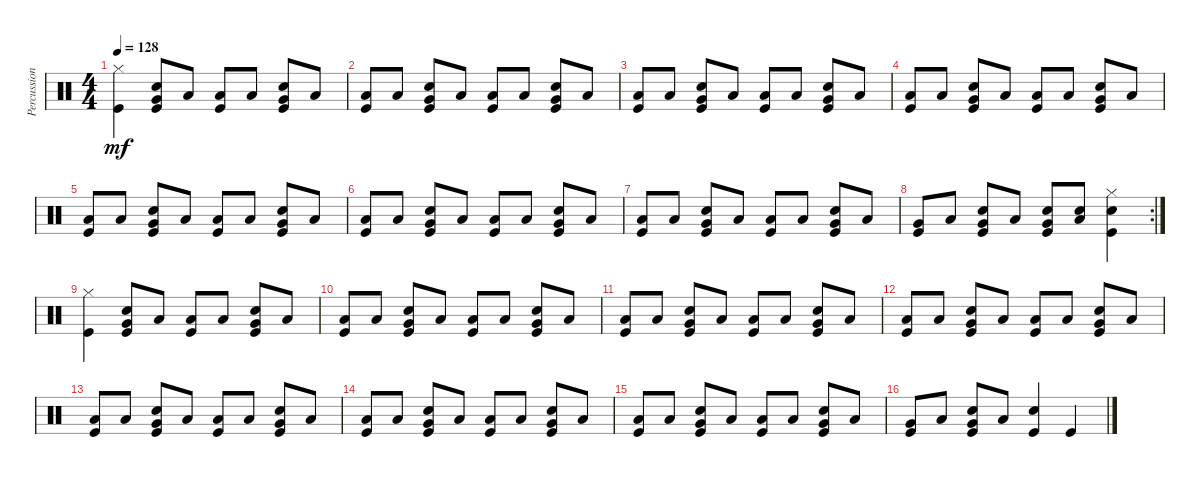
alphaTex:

\track ("Percussions" "Percussion") {instrument percussion}
\staff {score}
\articulation defaults
\ts (4 4)
\tempo 128
\clef neutral
\ks c
("Hi-Hat (closed)" "Kick (hit)").4{dy mf} ("Very Low Tom (hit)" "Snare (hit) 2" "Kick (hit)").8 "Low Floor Tom (hit)".8 ("Low Floor Tom (hit)" "Kick (hit)").8 "Low Floor Tom (hit)".8 ("Very Low Tom (hit)" "Snare (hit) 2" "Kick (hit)").8 "Low Floor Tom (hit)".8 |
("Low Floor Tom (hit)" "Kick (hit)").8 "Low Floor Tom (hit)".8 ("Very Low Tom (hit)" "Snare (hit) 2" "Kick (hit)").8 "Low Floor Tom (hit)".8 ("Low Floor Tom (hit)" "Kick (hit)").8 "Low Floor Tom (hit)".8 ("Very Low Tom (hit)" "Snare (hit) 2" "Kick (hit)").8 "Low Floor Tom (hit)".8 |
("Low Floor Tom (hit)" "Kick (hit)").8 "Low Floor Tom (hit)".8 ("Very Low Tom (hit)" "Snare (hit) 2" "Kick (hit)").8 "Low Floor Tom (hit)".8 ("Low Floor Tom (hit)" "Kick (hit)").8 "Low Floor Tom (hit)".8 ("Very Low Tom (hit)" "Snare (hit) 2" "Kick (hit)").8 "Low Floor Tom (hit)".8 |
("Low Floor Tom (hit)" "Kick (hit)").8 "Low Floor Tom (hit)".8 ("Very Low Tom (hit)" "Snare (hit) 2" "Kick (hit)").8 "Low Floor Tom (hit)".8 ("Low Floor Tom (hit)" "Kick (hit)").8 "Low Floor Tom (hit)".8 ("Very Low Tom (hit)" "Snare (hit) 2" "Kick (hit)").8 "Low Floor Tom (hit)".8 |
("Low Floor Tom (hit)" "Kick (hit)").8 "Low Floor Tom (hit)".8 ("Very Low Tom (hit)" "Snare (hit) 2" "Kick (hit)").8 "Low Floor Tom (hit)".8 ("Low Floor Tom (hit)" "Kick (hit)").8 "Low Floor Tom (hit)".8 ("Very Low Tom (hit)" "Snare (hit) 2" "Kick (hit)").8 "Low Floor Tom (hit)".8 |
("Low Floor Tom (hit)" "Kick (hit)").8 "Low Floor Tom (hit)".8 ("Very Low Tom (hit)" "Snare (hit) 2" "Kick (hit)").8 "Low Floor Tom (hit)".8 ("Low Floor Tom (hit)" "Kick (hit)").8 "Low Floor Tom (hit)".8 ("Very Low Tom (hit)" "Snare (hit) 2" "Kick (hit)").8 "Low Floor Tom (hit)".8 |
("Low Floor Tom (hit)" "Kick (hit)").8 "Low Floor Tom (hit)".8 ("Very Low Tom (hit)" "Snare (hit) 2" "Kick (hit)").8 "Low Floor Tom (hit)".8 ("Low Floor Tom (hit)" "Kick (hit)").8 "Low Floor Tom (hit)".8 ("Very Low Tom (hit)" "Snare (hit) 2" "Kick (hit)").8 "Low Floor Tom (hit)".8 |
\rc 2
("Very Low Tom (hit)" "Kick (hit)").8 "Low Floor Tom (hit)".8 ("Very Low Tom (hit)" "Snare (hit) 2" "Kick (hit)").8 "Low Floor Tom (hit)".8 ("Very Low Tom (hit)" "Snare (hit) 2" "Kick (hit)").8 ("Low Floor Tom (hit)" "Snare (hit) 2").8 ("Hi-Hat (closed)" "Snare (hit) 2" "Kick (hit)").4 |
("Hi-Hat (closed)" "Kick (hit)").4 ("Very Low Tom (hit)" "Snare (hit) 2" "Kick (hit)").8 "Low Floor Tom (hit)".8 ("Low Floor Tom (hit)" "Kick (hit)").8 "Low Floor Tom (hit)".8 ("Very Low Tom (hit)" "Snare (hit) 2" "Kick (hit)").8 "Low Floor Tom (hit)".8 |
("Low Floor Tom (hit)" "Kick (hit)").8 "Low Floor Tom (hit)".8 ("Very Low Tom (hit)" "Snare (hit) 2" "Kick (hit)").8 "Low Floor Tom (hit)".8 ("Low Floor Tom (hit)" "Kick (hit)").8 "Low Floor Tom (hit)".8 ("Very Low Tom (hit)" "Snare (hit) 2" "Kick (hit)").8 "Low Floor Tom (hit)".8 |
("Low Floor Tom (hit)" "Kick (hit)").8 "Low Floor Tom (hit)".8 ("Very Low Tom (hit)" "Snare (hit) 2" "Kick (hit)").8 "Low Floor Tom (hit)".8 ("Low Floor Tom (hit)" "Kick (hit)").8 "Low Floor Tom (hit)".8 ("Very Low Tom (hit)" "Snare (hit) 2" "Kick (hit)").8 "Low Floor Tom (hit)".8 |
("Low Floor Tom (hit)" "Kick (hit)").8 "Low Floor Tom (hit)".8 ("Very Low Tom (hit)" "Snare (hit) 2" "Kick (hit)").8 "Low Floor Tom (hit)".8 ("Low Floor Tom (hit)" "Kick (hit)").8 "Low Floor Tom (hit)".8 ("Very Low Tom (hit)" "Snare (hit) 2" "Kick (hit)").8 "Low Floor Tom (hit)".8 |
("Low Floor Tom (hit)" "Kick (hit)").8 "Low Floor Tom (hit)".8 ("Very Low Tom (hit)" "Snare (hit) 2" "Kick (hit)").8 "Low Floor Tom (hit)".8 ("Low Floor Tom (hit)" "Kick (hit)").8 "Low Floor Tom (hit)".8 ("Very Low Tom (hit)" "Snare (hit) 2" "Kick (hit)").8 "Low Floor Tom (hit)".8 |
("Low Floor Tom (hit)" "Kick (hit)").8 "Low Floor Tom (hit)".8 ("Very Low Tom (hit)" "Snare (hit) 2" "Kick (hit)").8 "Low Floor Tom (hit)".8 ("Low Floor Tom (hit)" "Kick (hit)").8 "Low Floor Tom (hit)".8 ("Very Low Tom (hit)" "Snare (hit) 2" "Kick (hit)").8 "Low Floor Tom (hit)".8 |
("Low Floor Tom (hit)" "Kick (hit)").8 "Low Floor Tom (hit)".8 ("Very Low Tom (hit)" "Snare (hit) 2" "Kick (hit)").8 "Low Floor Tom (hit)".8 ("Low Floor Tom (hit)" "Kick (hit)").8 "Low Floor Tom (hit)".8 ("Very Low Tom (hit)" "Snare (hit) 2" "Kick (hit)").8 "Low Floor Tom (hit)".8 |
("Very Low Tom (hit)" "Kick (hit)").8 "Low Floor Tom (hit)".8 ("Very Low Tom (hit)" "Snare (hit) 2" "Kick (hit)").8 "Low Floor Tom (hit)".8 ("Snare (hit) 2" "Kick (hit)").4 "Kick (hit)".4
